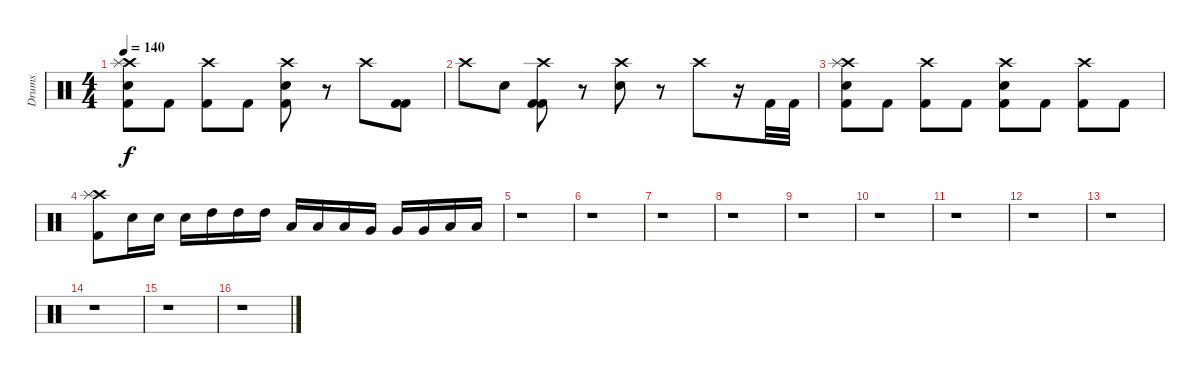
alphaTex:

\track ("Drums" "Drums") {instrument percussion}
\staff {score}
\articulation defaults
\ts (4 4)
\tempo 140
\clef neutral
\ks c
("Crash high (hit)" "Splash (hit)" "Electric Snare (hit)" "Kick (hit) 2").8{dy f} "Kick (hit) 2".8 ("Crash high (hit)" "Kick (hit) 2").8 "Kick (hit) 2".8 ("Crash high (hit)" "Electric Snare (hit)" "Kick (hit) 2").8 r.8 "Crash high (hit)".8 ("Kick (hit) 2" "Kick (hit) 2").8 |
"Crash high (hit)".8 "Electric Snare (hit)".8 ("Crash high (hit)" "Kick (hit) 2" "Kick (hit) 2").8 r.8 ("Crash high (hit)" "Electric Snare (hit)").8 r.8 "Crash high (hit)".8 r.16 "Kick (hit) 2".32 "Kick (hit) 2".32 |
("Crash high (hit)" "Splash (hit)" "Electric Snare (hit)" "Kick (hit) 2").8 "Kick (hit) 2".8 ("Crash high (hit)" "Kick (hit) 2").8 "Kick (hit) 2".8 ("Crash high (hit)" "Electric Snare (hit)" "Kick (hit) 2").8 "Kick (hit) 2".8 ("Crash high (hit)" "Kick (hit) 2").8 "Kick (hit) 2".8 |
("Crash high (hit)" "Splash (hit)" "Kick (hit) 2").8 "Electric Snare (hit)".16 "Electric Snare (hit)".16 "Electric Snare (hit)".16 "High Tom (hit)".16 "High Tom (hit)".16 "High Tom (hit)".16 "Low Tom (hit)".16 "Low Tom (hit)".16 "Low Tom (hit)".16 "Very Low Tom (hit)".16 "Very Low Tom (hit)".16 "Very Low Tom (hit)".16 "Low Floor Tom (hit)".16 "Low Floor Tom (hit)".16 |
r.1 |
r.1 |
r.1 |
r.1 |
r.1 |
r.1 |
r.1 |
r.1 |
r.1 |
r.1 |
r.1 |
r.1
